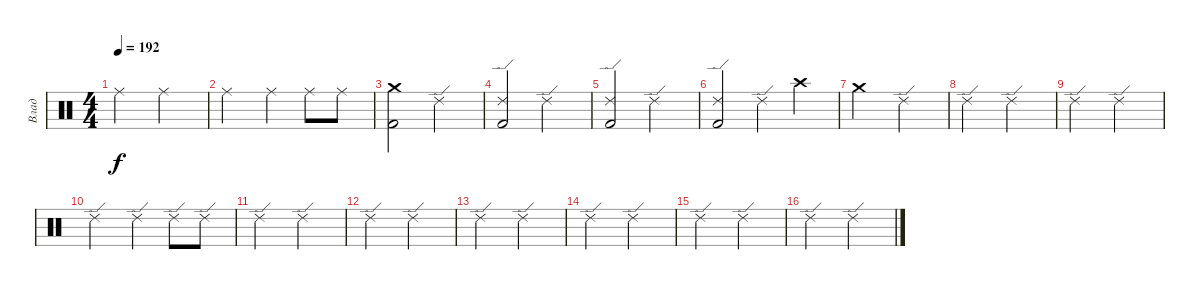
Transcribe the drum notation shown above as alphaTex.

\track ("Влад" "Влад") {instrument percussion}
\staff {score}
\articulation defaults
\ts (4 4)
\tempo 192
\clef neutral
\ks c "Ride (middle)".2{dy f} "Ride (middle)".2
|
"Ride (middle)".2 "Ride (middle)".4 "Ride (middle)".8 "Ride (middle)".8 |
("Crash medium (hit)" "Kick (hit) 2").2 "Ride (edge) 2".2 |
("Ride (edge) 2" "Kick (hit) 2").2 "Ride (edge) 2".2 |
("Ride (edge) 2" "Kick (hit) 2").2 "Ride (edge) 2".2 |
("Ride (edge) 2" "Kick (hit) 2").2 "Ride (edge) 2".4 "Crash high (hit)".4 |
"Crash medium (hit)".2 "Ride (edge) 2".2 |
"Ride (edge) 2".2 "Ride (edge) 2".2 |
"Ride (edge) 2".2 "Ride (edge) 2".2 |
"Ride (edge) 2".2 "Ride (edge) 2".4 "Ride (edge) 2".8 "Ride (edge) 2".8 |
"Ride (edge) 2".2 "Ride (edge) 2".2 |
"Ride (edge) 2".2 "Ride (edge) 2".2 |
"Ride (edge) 2".2 "Ride (edge) 2".2 |
"Ride (edge) 2".2 "Ride (edge) 2".2 |
"Ride (edge) 2".2 "Ride (edge) 2".2 |
"Ride (edge) 2".2 "Ride (edge) 2".2
